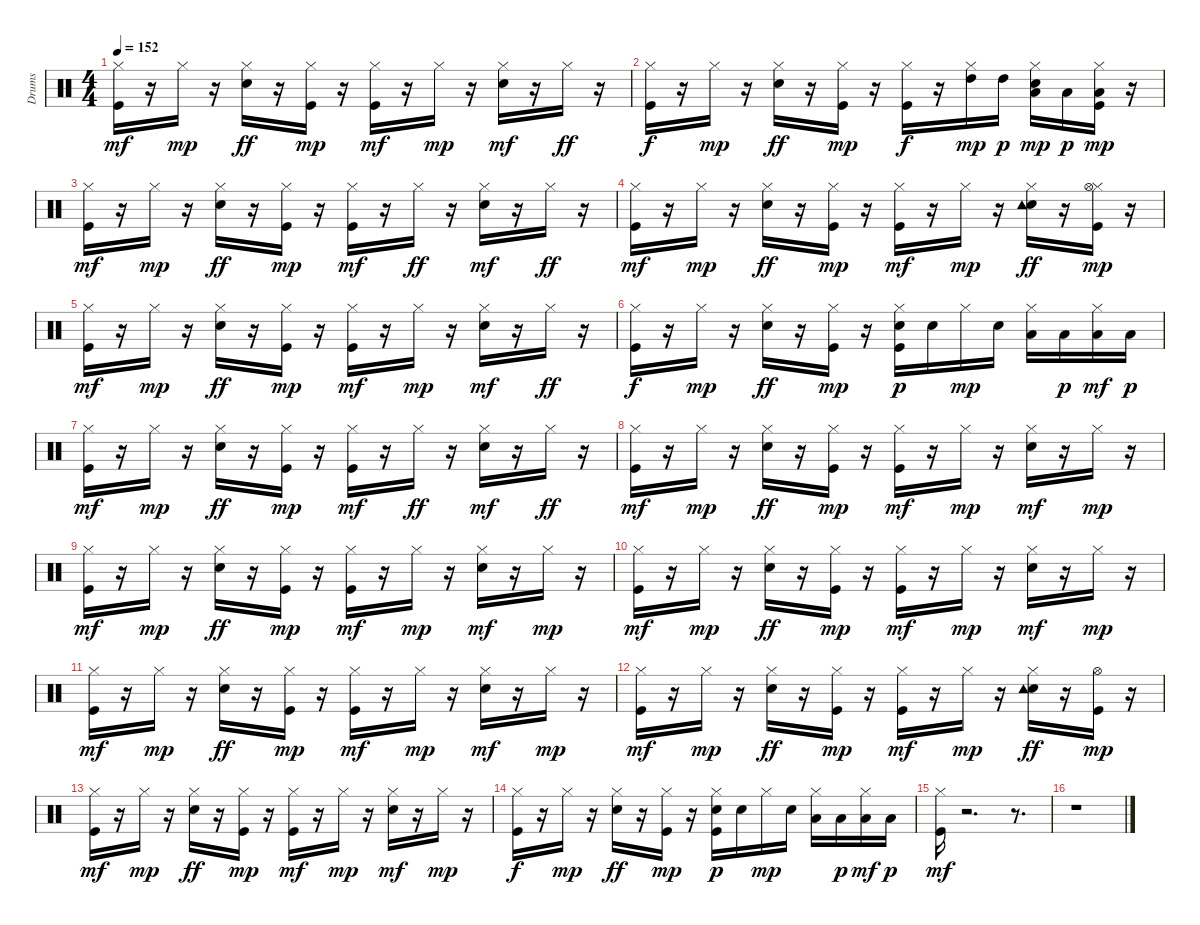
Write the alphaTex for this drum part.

\track ("Drums   " "Drums   ") {instrument percussion}
\staff {score}
\articulation defaults
\ts (4 4)
\tempo 152
\clef neutral
\ks c
("Kick (hit)" "Hi-Hat (closed)").16{dy mf} r.16 "Hi-Hat (closed)".16{dy mp} r.16 ("Snare (hit) 2" "Hi-Hat (closed)").16{dy ff} r.16 ("Kick (hit)" "Hi-Hat (closed)").16{dy mp} r.16 ("Kick (hit)" "Hi-Hat (closed)").16{dy mf} r.16 "Hi-Hat (closed)".16{dy mp} r.16 ("Snare (hit) 2" "Hi-Hat (closed)").16{dy mf} r.16 "Hi-Hat (closed)".16{dy ff} r.16 |
("Kick (hit)" "Hi-Hat (closed)").16{dy f} r.16 "Hi-Hat (closed)".16{dy mp} r.16 ("Snare (hit) 2" "Hi-Hat (closed)").16{dy ff} r.16 ("Kick (hit)" "Hi-Hat (closed)").16{dy mp} r.16 ("Kick (hit)" "Hi-Hat (closed)").16{dy f} r.16 ("Hi-Hat (closed)" "High Tom (hit)").16{dy mp} "High Tom (hit)".16{dy p} ("Snare (hit) 2" "Hi-Hat (closed)" "Low Tom (hit)").16{dy mp} "Low Tom (hit)".16{dy p} ("Kick (hit)" "Hi-Hat (closed)" "Low Floor Tom (hit)").16{dy mp} r.16 |
("Kick (hit)" "Hi-Hat (closed)").16{dy mf} r.16 "Hi-Hat (closed)".16{dy mp} r.16 ("Snare (hit) 2" "Hi-Hat (closed)").16{dy ff} r.16 ("Kick (hit)" "Hi-Hat (closed)").16{dy mp} r.16 ("Kick (hit)" "Hi-Hat (closed)").16{dy mf} r.16 "Hi-Hat (closed)".16{dy ff} r.16 ("Snare (hit) 2" "Hi-Hat (closed)").16{dy mf} r.16 "Hi-Hat (closed)".16{dy ff} r.16 |
("Kick (hit)" "Hi-Hat (closed)").16{dy mf} r.16 "Hi-Hat (closed)".16{dy mp} r.16 ("Snare (hit) 2" "Hi-Hat (closed)").16{dy ff} r.16 ("Kick (hit)" "Hi-Hat (closed)").16{dy mp} r.16 ("Kick (hit)" "Hi-Hat (closed)").16{dy mf} r.16 "Hi-Hat (closed)".16{dy mp} r.16 ("Snare (hit) 2" "Hi-Hat (closed)" "Tambourine (hit)").16{dy ff} r.16 ("Kick (hit)" "Hi-Hat (closed)" "Hi-Hat (open)").16{dy mp} r.16 |
("Kick (hit)" "Hi-Hat (closed)").16{dy mf} r.16 "Hi-Hat (closed)".16{dy mp} r.16 ("Snare (hit) 2" "Hi-Hat (closed)").16{dy ff} r.16 ("Kick (hit)" "Hi-Hat (closed)").16{dy mp} r.16 ("Kick (hit)" "Hi-Hat (closed)").16{dy mf} r.16 "Hi-Hat (closed)".16{dy mp} r.16 ("Snare (hit) 2" "Hi-Hat (closed)").16{dy mf} r.16 "Hi-Hat (closed)".16{dy ff} r.16 |
("Kick (hit)" "Hi-Hat (closed)").16{dy f} r.16 "Hi-Hat (closed)".16{dy mp} r.16 ("Snare (hit) 2" "Hi-Hat (closed)").16{dy ff} r.16 ("Kick (hit)" "Hi-Hat (closed)").16{dy mp} r.16 ("Kick (hit)" "Snare (hit) 2" "Hi-Hat (closed)").16{dy p} "Snare (hit) 2".16 "Hi-Hat (closed)".16{dy mp} "Snare (hit) 2".16 ("Hi-Hat (closed)" "Low Tom (hit)").16 "Low Tom (hit)".16{dy p} ("Hi-Hat (closed)" "Low Tom (hit)").16{dy mf} "Low Tom (hit)".16{dy p} |
("Kick (hit)" "Hi-Hat (closed)").16{dy mf} r.16 "Hi-Hat (closed)".16{dy mp} r.16 ("Snare (hit) 2" "Hi-Hat (closed)").16{dy ff} r.16 ("Kick (hit)" "Hi-Hat (closed)").16{dy mp} r.16 ("Kick (hit)" "Hi-Hat (closed)").16{dy mf} r.16 "Hi-Hat (closed)".16{dy ff} r.16 ("Snare (hit) 2" "Hi-Hat (closed)").16{dy mf} r.16 "Hi-Hat (closed)".16{dy ff} r.16 |
("Kick (hit)" "Hi-Hat (closed)").16{dy mf} r.16 "Hi-Hat (closed)".16{dy mp} r.16 ("Snare (hit) 2" "Hi-Hat (closed)").16{dy ff} r.16 ("Kick (hit)" "Hi-Hat (closed)").16{dy mp} r.16 ("Kick (hit)" "Hi-Hat (closed)").16{dy mf} r.16 "Hi-Hat (closed)".16{dy mp} r.16 ("Snare (hit) 2" "Hi-Hat (closed)").16{dy mf} r.16 "Hi-Hat (closed)".16{dy mp} r.16 |
("Kick (hit)" "Hi-Hat (closed)").16{dy mf} r.16 "Hi-Hat (closed)".16{dy mp} r.16 ("Snare (hit) 2" "Hi-Hat (closed)").16{dy ff} r.16 ("Kick (hit)" "Hi-Hat (closed)").16{dy mp} r.16 ("Kick (hit)" "Hi-Hat (closed)").16{dy mf} r.16 "Hi-Hat (closed)".16{dy mp} r.16 ("Snare (hit) 2" "Hi-Hat (closed)").16{dy mf} r.16 "Hi-Hat (closed)".16{dy mp} r.16 |
("Kick (hit)" "Hi-Hat (closed)").16{dy mf} r.16 "Hi-Hat (closed)".16{dy mp} r.16 ("Snare (hit) 2" "Hi-Hat (closed)").16{dy ff} r.16 ("Kick (hit)" "Hi-Hat (closed)").16{dy mp} r.16 ("Kick (hit)" "Hi-Hat (closed)").16{dy mf} r.16 "Hi-Hat (closed)".16{dy mp} r.16 ("Snare (hit) 2" "Hi-Hat (closed)").16{dy mf} r.16 "Hi-Hat (closed)".16{dy mp} r.16 |
("Kick (hit)" "Hi-Hat (closed)").16{dy mf} r.16 "Hi-Hat (closed)".16{dy mp} r.16 ("Snare (hit) 2" "Hi-Hat (closed)").16{dy ff} r.16 ("Kick (hit)" "Hi-Hat (closed)").16{dy mp} r.16 ("Kick (hit)" "Hi-Hat (closed)").16{dy mf} r.16 "Hi-Hat (closed)".16{dy mp} r.16 ("Snare (hit) 2" "Hi-Hat (closed)").16{dy mf} r.16 "Hi-Hat (closed)".16{dy mp} r.16 |
("Kick (hit)" "Hi-Hat (closed)").16{dy mf} r.16 "Hi-Hat (closed)".16{dy mp} r.16 ("Snare (hit) 2" "Hi-Hat (closed)").16{dy ff} r.16 ("Kick (hit)" "Hi-Hat (closed)").16{dy mp} r.16 ("Kick (hit)" "Hi-Hat (closed)").16{dy mf} r.16 "Hi-Hat (closed)".16{dy mp} r.16 ("Snare (hit) 2" "Hi-Hat (closed)" "Tambourine (hit)").16{dy ff} r.16 ("Kick (hit)" "Hi-Hat (open)").16{dy mp} r.16 |
("Kick (hit)" "Hi-Hat (closed)").16{dy mf} r.16 "Hi-Hat (closed)".16{dy mp} r.16 ("Snare (hit) 2" "Hi-Hat (closed)").16{dy ff} r.16 ("Kick (hit)" "Hi-Hat (closed)").16{dy mp} r.16 ("Kick (hit)" "Hi-Hat (closed)").16{dy mf} r.16 "Hi-Hat (closed)".16{dy mp} r.16 ("Snare (hit) 2" "Hi-Hat (closed)").16{dy mf} r.16 "Hi-Hat (closed)".16{dy mp} r.16 |
("Kick (hit)" "Hi-Hat (closed)").16{dy f} r.16 "Hi-Hat (closed)".16{dy mp} r.16 ("Snare (hit) 2" "Hi-Hat (closed)").16{dy ff} r.16 ("Kick (hit)" "Hi-Hat (closed)").16{dy mp} r.16 ("Kick (hit)" "Snare (hit) 2" "Hi-Hat (closed)").16{dy p} "Snare (hit) 2".16 "Hi-Hat (closed)".16{dy mp} "Snare (hit) 2".16 ("Hi-Hat (closed)" "Low Tom (hit)").16 "Low Tom (hit)".16{dy p} ("Hi-Hat (closed)" "Low Tom (hit)").16{dy mf} "Low Tom (hit)".16{dy p} |
("Kick (hit)" "Hi-Hat (closed)").16{dy mf} r.2{d} r.8{d} |
r.1
